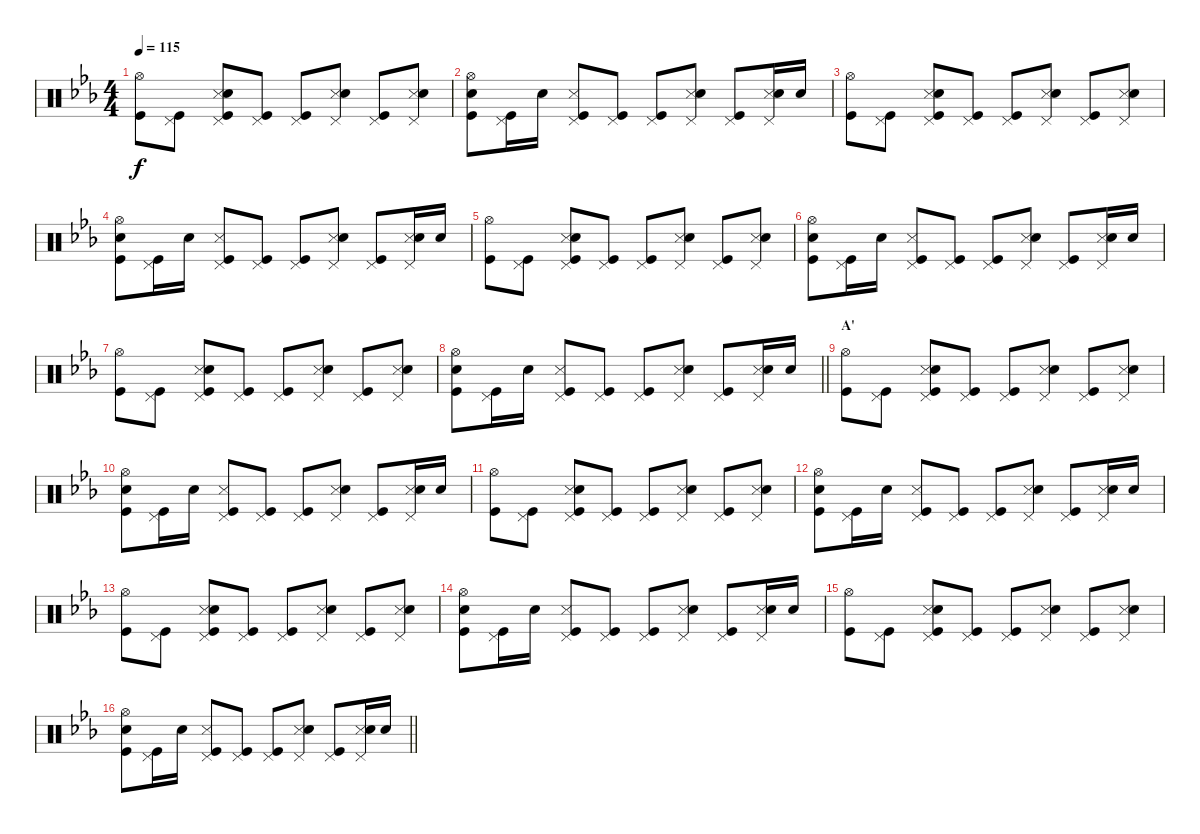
\track "" {instrument percussion}
\staff {score}
\articulation defaults
\ts (4 4)
\tempo 115
\clef neutral
\ks cminor
("Hi-Hat (open)" "Kick (hit)").8{dy f} ("Pedal Hi-Hat (hit)" "Kick (hit)").8 ("Pedal Hi-Hat (hit)" "Snare (side stick) 3" "Electric Snare (hit)" "Kick (hit)").8 ("Pedal Hi-Hat (hit)" "Kick (hit)").8 ("Pedal Hi-Hat (hit)" "Kick (hit)").8 ("Pedal Hi-Hat (hit)" "Snare (side stick) 3" "Electric Snare (hit)").8 ("Pedal Hi-Hat (hit)" "Kick (hit)").8 ("Pedal Hi-Hat (hit)" "Snare (side stick) 3" "Electric Snare (hit)").8 |
("Hi-Hat (open)" "Electric Snare (hit)" "Kick (hit)").8 ("Pedal Hi-Hat (hit)" "Kick (hit)").16 "Electric Snare (hit)".16 ("Pedal Hi-Hat (hit)" "Snare (side stick) 3" "Kick (hit)").8 ("Pedal Hi-Hat (hit)" "Kick (hit)").8 ("Pedal Hi-Hat (hit)" "Kick (hit)").8 ("Pedal Hi-Hat (hit)" "Snare (side stick) 3" "Electric Snare (hit)").8 ("Pedal Hi-Hat (hit)" "Kick (hit)").8 ("Pedal Hi-Hat (hit)" "Snare (side stick) 3" "Electric Snare (hit)").16 "Electric Snare (hit)".16 |
("Hi-Hat (open)" "Kick (hit)").8 ("Pedal Hi-Hat (hit)" "Kick (hit)").8 ("Pedal Hi-Hat (hit)" "Snare (side stick) 3" "Electric Snare (hit)" "Kick (hit)").8 ("Pedal Hi-Hat (hit)" "Kick (hit)").8 ("Pedal Hi-Hat (hit)" "Kick (hit)").8 ("Pedal Hi-Hat (hit)" "Snare (side stick) 3" "Electric Snare (hit)").8 ("Pedal Hi-Hat (hit)" "Kick (hit)").8 ("Pedal Hi-Hat (hit)" "Snare (side stick) 3" "Electric Snare (hit)").8 |
("Hi-Hat (open)" "Electric Snare (hit)" "Kick (hit)").8 ("Pedal Hi-Hat (hit)" "Kick (hit)").16 "Electric Snare (hit)".16 ("Pedal Hi-Hat (hit)" "Snare (side stick) 3" "Kick (hit)").8 ("Pedal Hi-Hat (hit)" "Kick (hit)").8 ("Pedal Hi-Hat (hit)" "Kick (hit)").8 ("Pedal Hi-Hat (hit)" "Snare (side stick) 3" "Electric Snare (hit)").8 ("Pedal Hi-Hat (hit)" "Kick (hit)").8 ("Pedal Hi-Hat (hit)" "Snare (side stick) 3" "Electric Snare (hit)").16 "Electric Snare (hit)".16 |
("Hi-Hat (open)" "Kick (hit)").8 ("Pedal Hi-Hat (hit)" "Kick (hit)").8 ("Pedal Hi-Hat (hit)" "Snare (side stick) 3" "Electric Snare (hit)" "Kick (hit)").8 ("Pedal Hi-Hat (hit)" "Kick (hit)").8 ("Pedal Hi-Hat (hit)" "Kick (hit)").8 ("Pedal Hi-Hat (hit)" "Snare (side stick) 3" "Electric Snare (hit)").8 ("Pedal Hi-Hat (hit)" "Kick (hit)").8 ("Pedal Hi-Hat (hit)" "Snare (side stick) 3" "Electric Snare (hit)").8 |
("Hi-Hat (open)" "Electric Snare (hit)" "Kick (hit)").8 ("Pedal Hi-Hat (hit)" "Kick (hit)").16 "Electric Snare (hit)".16 ("Pedal Hi-Hat (hit)" "Snare (side stick) 3" "Kick (hit)").8 ("Pedal Hi-Hat (hit)" "Kick (hit)").8 ("Pedal Hi-Hat (hit)" "Kick (hit)").8 ("Pedal Hi-Hat (hit)" "Snare (side stick) 3" "Electric Snare (hit)").8 ("Pedal Hi-Hat (hit)" "Kick (hit)").8 ("Pedal Hi-Hat (hit)" "Snare (side stick) 3" "Electric Snare (hit)").16 "Electric Snare (hit)".16 |
("Hi-Hat (open)" "Kick (hit)").8 ("Pedal Hi-Hat (hit)" "Kick (hit)").8 ("Pedal Hi-Hat (hit)" "Snare (side stick) 3" "Electric Snare (hit)" "Kick (hit)").8 ("Pedal Hi-Hat (hit)" "Kick (hit)").8 ("Pedal Hi-Hat (hit)" "Kick (hit)").8 ("Pedal Hi-Hat (hit)" "Snare (side stick) 3" "Electric Snare (hit)").8 ("Pedal Hi-Hat (hit)" "Kick (hit)").8 ("Pedal Hi-Hat (hit)" "Snare (side stick) 3" "Electric Snare (hit)").8 |
\barLineRight lightlight
("Hi-Hat (open)" "Electric Snare (hit)" "Kick (hit)").8 ("Pedal Hi-Hat (hit)" "Kick (hit)").16 "Electric Snare (hit)".16 ("Pedal Hi-Hat (hit)" "Snare (side stick) 3" "Kick (hit)").8 ("Pedal Hi-Hat (hit)" "Kick (hit)").8 ("Pedal Hi-Hat (hit)" "Kick (hit)").8 ("Pedal Hi-Hat (hit)" "Snare (side stick) 3" "Electric Snare (hit)").8 ("Pedal Hi-Hat (hit)" "Kick (hit)").8 ("Pedal Hi-Hat (hit)" "Snare (side stick) 3" "Electric Snare (hit)").16 "Electric Snare (hit)".16 |
\section ("" "A'")
("Hi-Hat (open)" "Kick (hit)").8 ("Pedal Hi-Hat (hit)" "Kick (hit)").8 ("Pedal Hi-Hat (hit)" "Snare (side stick) 3" "Electric Snare (hit)" "Kick (hit)").8 ("Pedal Hi-Hat (hit)" "Kick (hit)").8 ("Pedal Hi-Hat (hit)" "Kick (hit)").8 ("Pedal Hi-Hat (hit)" "Snare (side stick) 3" "Electric Snare (hit)").8 ("Pedal Hi-Hat (hit)" "Kick (hit)").8 ("Pedal Hi-Hat (hit)" "Snare (side stick) 3" "Electric Snare (hit)").8 |
("Hi-Hat (open)" "Electric Snare (hit)" "Kick (hit)").8 ("Pedal Hi-Hat (hit)" "Kick (hit)").16 "Electric Snare (hit)".16 ("Pedal Hi-Hat (hit)" "Snare (side stick) 3" "Kick (hit)").8 ("Pedal Hi-Hat (hit)" "Kick (hit)").8 ("Pedal Hi-Hat (hit)" "Kick (hit)").8 ("Pedal Hi-Hat (hit)" "Snare (side stick) 3" "Electric Snare (hit)").8 ("Pedal Hi-Hat (hit)" "Kick (hit)").8 ("Pedal Hi-Hat (hit)" "Snare (side stick) 3" "Electric Snare (hit)").16 "Electric Snare (hit)".16 |
("Hi-Hat (open)" "Kick (hit)").8 ("Pedal Hi-Hat (hit)" "Kick (hit)").8 ("Pedal Hi-Hat (hit)" "Snare (side stick) 3" "Electric Snare (hit)" "Kick (hit)").8 ("Pedal Hi-Hat (hit)" "Kick (hit)").8 ("Pedal Hi-Hat (hit)" "Kick (hit)").8 ("Pedal Hi-Hat (hit)" "Snare (side stick) 3" "Electric Snare (hit)").8 ("Pedal Hi-Hat (hit)" "Kick (hit)").8 ("Pedal Hi-Hat (hit)" "Snare (side stick) 3" "Electric Snare (hit)").8 |
("Hi-Hat (open)" "Electric Snare (hit)" "Kick (hit)").8 ("Pedal Hi-Hat (hit)" "Kick (hit)").16 "Electric Snare (hit)".16 ("Pedal Hi-Hat (hit)" "Snare (side stick) 3" "Kick (hit)").8 ("Pedal Hi-Hat (hit)" "Kick (hit)").8 ("Pedal Hi-Hat (hit)" "Kick (hit)").8 ("Pedal Hi-Hat (hit)" "Snare (side stick) 3" "Electric Snare (hit)").8 ("Pedal Hi-Hat (hit)" "Kick (hit)").8 ("Pedal Hi-Hat (hit)" "Snare (side stick) 3" "Electric Snare (hit)").16 "Electric Snare (hit)".16 |
("Hi-Hat (open)" "Kick (hit)").8 ("Pedal Hi-Hat (hit)" "Kick (hit)").8 ("Pedal Hi-Hat (hit)" "Snare (side stick) 3" "Electric Snare (hit)" "Kick (hit)").8 ("Pedal Hi-Hat (hit)" "Kick (hit)").8 ("Pedal Hi-Hat (hit)" "Kick (hit)").8 ("Pedal Hi-Hat (hit)" "Snare (side stick) 3" "Electric Snare (hit)").8 ("Pedal Hi-Hat (hit)" "Kick (hit)").8 ("Pedal Hi-Hat (hit)" "Snare (side stick) 3" "Electric Snare (hit)").8 |
("Hi-Hat (open)" "Electric Snare (hit)" "Kick (hit)").8 ("Pedal Hi-Hat (hit)" "Kick (hit)").16 "Electric Snare (hit)".16 ("Pedal Hi-Hat (hit)" "Snare (side stick) 3" "Kick (hit)").8 ("Pedal Hi-Hat (hit)" "Kick (hit)").8 ("Pedal Hi-Hat (hit)" "Kick (hit)").8 ("Pedal Hi-Hat (hit)" "Snare (side stick) 3" "Electric Snare (hit)").8 ("Pedal Hi-Hat (hit)" "Kick (hit)").8 ("Pedal Hi-Hat (hit)" "Snare (side stick) 3" "Electric Snare (hit)").16 "Electric Snare (hit)".16 |
("Hi-Hat (open)" "Kick (hit)").8 ("Pedal Hi-Hat (hit)" "Kick (hit)").8 ("Pedal Hi-Hat (hit)" "Snare (side stick) 3" "Electric Snare (hit)" "Kick (hit)").8 ("Pedal Hi-Hat (hit)" "Kick (hit)").8 ("Pedal Hi-Hat (hit)" "Kick (hit)").8 ("Pedal Hi-Hat (hit)" "Snare (side stick) 3" "Electric Snare (hit)").8 ("Pedal Hi-Hat (hit)" "Kick (hit)").8 ("Pedal Hi-Hat (hit)" "Snare (side stick) 3" "Electric Snare (hit)").8 |
\barLineRight lightlight
("Hi-Hat (open)" "Electric Snare (hit)" "Kick (hit)").8 ("Pedal Hi-Hat (hit)" "Kick (hit)").16 "Electric Snare (hit)".16 ("Pedal Hi-Hat (hit)" "Snare (side stick) 3" "Kick (hit)").8 ("Pedal Hi-Hat (hit)" "Kick (hit)").8 ("Pedal Hi-Hat (hit)" "Kick (hit)").8 ("Pedal Hi-Hat (hit)" "Snare (side stick) 3" "Electric Snare (hit)").8 ("Pedal Hi-Hat (hit)" "Kick (hit)").8 ("Pedal Hi-Hat (hit)" "Snare (side stick) 3" "Electric Snare (hit)").16 "Electric Snare (hit)".16
